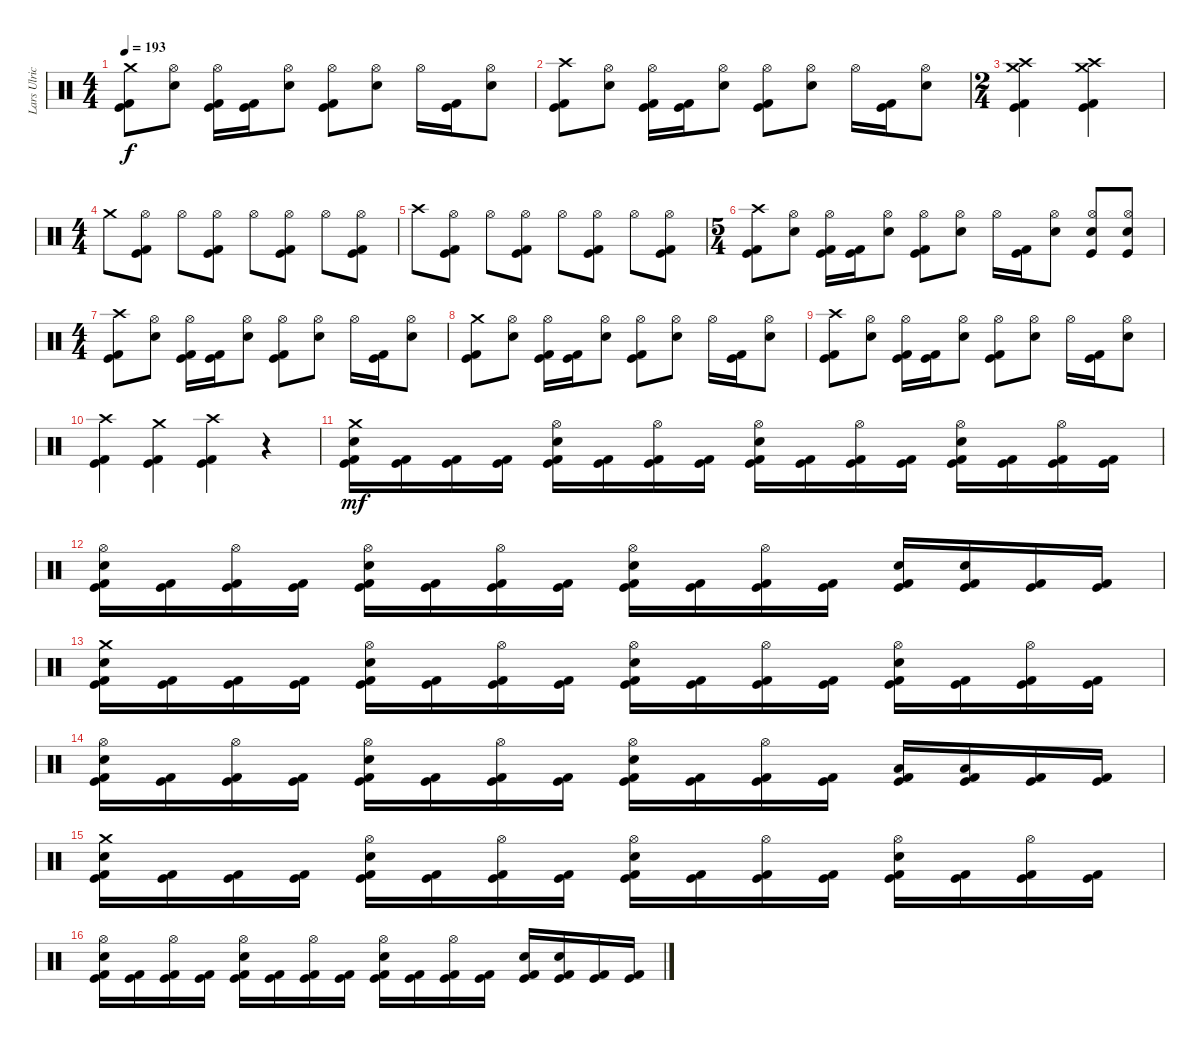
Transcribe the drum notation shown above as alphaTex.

\track ("Lars Ulrich" "Lars Ulric") {instrument percussion}
\staff {score}
\articulation defaults
\ts (4 4)
\tempo 193
\clef neutral
\ks c
("Crash medium (hit)" "Kick (hit) 2" "Kick (hit)").8{dy f} ("Hi-Hat (open)" "Electric Snare (hit)").8 ("Hi-Hat (open)" "Kick (hit) 2" "Kick (hit)").16 ("Kick (hit) 2" "Kick (hit)").16 ("Hi-Hat (open)" "Electric Snare (hit)").8 ("Hi-Hat (open)" "Kick (hit) 2" "Kick (hit)").8 ("Hi-Hat (open)" "Electric Snare (hit)").8 "Hi-Hat (open)".16 ("Kick (hit) 2" "Kick (hit)").16 ("Hi-Hat (open)" "Electric Snare (hit)").8 |
("Crash high (hit)" "Kick (hit) 2" "Kick (hit)").8 ("Hi-Hat (open)" "Electric Snare (hit)").8 ("Hi-Hat (open)" "Kick (hit) 2" "Kick (hit)").16 ("Kick (hit) 2" "Kick (hit)").16 ("Hi-Hat (open)" "Electric Snare (hit)").8 ("Hi-Hat (open)" "Kick (hit) 2" "Kick (hit)").8 ("Hi-Hat (open)" "Electric Snare (hit)").8 "Hi-Hat (open)".16 ("Kick (hit) 2" "Kick (hit)").16 ("Hi-Hat (open)" "Electric Snare (hit)").8 |
\ts (2 4)
("Crash high (hit)" "Crash medium (hit)" "Kick (hit) 2" "Kick (hit)").4 ("Crash high (hit)" "Crash medium (hit)" "Kick (hit) 2" "Kick (hit)").4 |
\ts (4 4)
"Crash medium (hit)".8 ("Hi-Hat (open)" "Kick (hit) 2" "Kick (hit)").8 "Hi-Hat (open)".8 ("Hi-Hat (open)" "Kick (hit) 2" "Kick (hit)").8 "Hi-Hat (open)".8 ("Hi-Hat (open)" "Kick (hit) 2" "Kick (hit)").8 "Hi-Hat (open)".8 ("Hi-Hat (open)" "Kick (hit) 2" "Kick (hit)").8 |
"Crash high (hit)".8 ("Hi-Hat (open)" "Kick (hit) 2" "Kick (hit)").8 "Hi-Hat (open)".8 ("Hi-Hat (open)" "Kick (hit) 2" "Kick (hit)").8 "Hi-Hat (open)".8 ("Hi-Hat (open)" "Kick (hit) 2" "Kick (hit)").8 "Hi-Hat (open)".8 ("Hi-Hat (open)" "Kick (hit) 2" "Kick (hit)").8 |
\ts (5 4)
("Crash high (hit)" "Kick (hit) 2" "Kick (hit)").8 ("Hi-Hat (open)" "Electric Snare (hit)").8 ("Hi-Hat (open)" "Kick (hit) 2" "Kick (hit)").16 ("Kick (hit) 2" "Kick (hit)").16 ("Hi-Hat (open)" "Electric Snare (hit)").8 ("Hi-Hat (open)" "Kick (hit) 2" "Kick (hit)").8 ("Hi-Hat (open)" "Electric Snare (hit)").8 "Hi-Hat (open)".16 ("Kick (hit) 2" "Kick (hit)").16 ("Hi-Hat (open)" "Electric Snare (hit)").8 ("Hi-Hat (open)" "Electric Snare (hit)" "Kick (hit)").8 ("Hi-Hat (open)" "Electric Snare (hit)" "Kick (hit)").8 |
\ts (4 4)
("Crash high (hit)" "Kick (hit) 2" "Kick (hit)").8 ("Hi-Hat (open)" "Electric Snare (hit)").8 ("Hi-Hat (open)" "Kick (hit) 2" "Kick (hit)").16 ("Kick (hit) 2" "Kick (hit)").16 ("Hi-Hat (open)" "Electric Snare (hit)").8 ("Hi-Hat (open)" "Kick (hit) 2" "Kick (hit)").8 ("Hi-Hat (open)" "Electric Snare (hit)").8 "Hi-Hat (open)".16 ("Kick (hit) 2" "Kick (hit)").16 ("Hi-Hat (open)" "Electric Snare (hit)").8 |
("Crash medium (hit)" "Kick (hit) 2" "Kick (hit)").8 ("Hi-Hat (open)" "Electric Snare (hit)").8 ("Hi-Hat (open)" "Kick (hit) 2" "Kick (hit)").16 ("Kick (hit) 2" "Kick (hit)").16 ("Hi-Hat (open)" "Electric Snare (hit)").8 ("Hi-Hat (open)" "Kick (hit) 2" "Kick (hit)").8 ("Hi-Hat (open)" "Electric Snare (hit)").8 "Hi-Hat (open)".16 ("Kick (hit) 2" "Kick (hit)").16 ("Hi-Hat (open)" "Electric Snare (hit)").8 |
("Crash high (hit)" "Kick (hit) 2" "Kick (hit)").8 ("Hi-Hat (open)" "Electric Snare (hit)").8 ("Hi-Hat (open)" "Kick (hit) 2" "Kick (hit)").16 ("Kick (hit) 2" "Kick (hit)").16 ("Hi-Hat (open)" "Electric Snare (hit)").8 ("Hi-Hat (open)" "Kick (hit) 2" "Kick (hit)").8 ("Hi-Hat (open)" "Electric Snare (hit)").8 "Hi-Hat (open)".16 ("Kick (hit) 2" "Kick (hit)").16 ("Hi-Hat (open)" "Electric Snare (hit)").8 |
("Crash high (hit)" "Kick (hit) 2" "Kick (hit)").4 ("Crash medium (hit)" "Kick (hit) 2" "Kick (hit)").4 ("Crash high (hit)" "Kick (hit) 2" "Kick (hit)").4 r.4 |
("Crash medium (hit)" "Electric Snare (hit)" "Kick (hit) 2" "Kick (hit)").16{dy mf} ("Kick (hit) 2" "Kick (hit)").16 ("Kick (hit) 2" "Kick (hit)").16 ("Kick (hit) 2" "Kick (hit)").16 ("Hi-Hat (open)" "Electric Snare (hit)" "Kick (hit) 2" "Kick (hit)").16 ("Kick (hit) 2" "Kick (hit)").16 ("Hi-Hat (open)" "Kick (hit) 2" "Kick (hit)").16 ("Kick (hit) 2" "Kick (hit)").16 ("Hi-Hat (open)" "Electric Snare (hit)" "Kick (hit) 2" "Kick (hit)").16 ("Kick (hit) 2" "Kick (hit)").16 ("Hi-Hat (open)" "Kick (hit) 2" "Kick (hit)").16 ("Kick (hit) 2" "Kick (hit)").16 ("Hi-Hat (open)" "Electric Snare (hit)" "Kick (hit) 2" "Kick (hit)").16 ("Kick (hit) 2" "Kick (hit)").16 ("Hi-Hat (open)" "Kick (hit) 2" "Kick (hit)").16 ("Kick (hit) 2" "Kick (hit)").16 |
("Hi-Hat (open)" "Electric Snare (hit)" "Kick (hit) 2" "Kick (hit)").16 ("Kick (hit) 2" "Kick (hit)").16 ("Hi-Hat (open)" "Kick (hit) 2" "Kick (hit)").16 ("Kick (hit) 2" "Kick (hit)").16 ("Hi-Hat (open)" "Electric Snare (hit)" "Kick (hit) 2" "Kick (hit)").16 ("Kick (hit) 2" "Kick (hit)").16 ("Hi-Hat (open)" "Kick (hit) 2" "Kick (hit)").16 ("Kick (hit) 2" "Kick (hit)").16 ("Hi-Hat (open)" "Electric Snare (hit)" "Kick (hit) 2" "Kick (hit)").16 ("Kick (hit) 2" "Kick (hit)").16 ("Hi-Hat (open)" "Kick (hit) 2" "Kick (hit)").16 ("Kick (hit) 2" "Kick (hit)").16 ("Electric Snare (hit)" "Kick (hit) 2" "Kick (hit)").16 ("Electric Snare (hit)" "Kick (hit) 2" "Kick (hit)").16 ("Kick (hit) 2" "Kick (hit)").16 ("Kick (hit) 2" "Kick (hit)").16 |
("Crash medium (hit)" "Electric Snare (hit)" "Kick (hit) 2" "Kick (hit)").16 ("Kick (hit) 2" "Kick (hit)").16 ("Kick (hit) 2" "Kick (hit)").16 ("Kick (hit) 2" "Kick (hit)").16 ("Hi-Hat (open)" "Electric Snare (hit)" "Kick (hit) 2" "Kick (hit)").16 ("Kick (hit) 2" "Kick (hit)").16 ("Hi-Hat (open)" "Kick (hit) 2" "Kick (hit)").16 ("Kick (hit) 2" "Kick (hit)").16 ("Hi-Hat (open)" "Electric Snare (hit)" "Kick (hit) 2" "Kick (hit)").16 ("Kick (hit) 2" "Kick (hit)").16 ("Hi-Hat (open)" "Kick (hit) 2" "Kick (hit)").16 ("Kick (hit) 2" "Kick (hit)").16 ("Hi-Hat (open)" "Electric Snare (hit)" "Kick (hit) 2" "Kick (hit)").16 ("Kick (hit) 2" "Kick (hit)").16 ("Hi-Hat (open)" "Kick (hit) 2" "Kick (hit)").16 ("Kick (hit) 2" "Kick (hit)").16 |
("Hi-Hat (open)" "Electric Snare (hit)" "Kick (hit) 2" "Kick (hit)").16 ("Kick (hit) 2" "Kick (hit)").16 ("Hi-Hat (open)" "Kick (hit) 2" "Kick (hit)").16 ("Kick (hit) 2" "Kick (hit)").16 ("Hi-Hat (open)" "Electric Snare (hit)" "Kick (hit) 2" "Kick (hit)").16 ("Kick (hit) 2" "Kick (hit)").16 ("Hi-Hat (open)" "Kick (hit) 2" "Kick (hit)").16 ("Kick (hit) 2" "Kick (hit)").16 ("Hi-Hat (open)" "Electric Snare (hit)" "Kick (hit) 2" "Kick (hit)").16 ("Kick (hit) 2" "Kick (hit)").16 ("Hi-Hat (open)" "Kick (hit) 2" "Kick (hit)").16 ("Kick (hit) 2" "Kick (hit)").16 ("Low Tom (hit)" "Kick (hit) 2" "Kick (hit)").16 ("Low Tom (hit)" "Kick (hit) 2" "Kick (hit)").16 ("Kick (hit) 2" "Kick (hit)").16 ("Kick (hit) 2" "Kick (hit)").16 |
("Crash medium (hit)" "Electric Snare (hit)" "Kick (hit) 2" "Kick (hit)").16 ("Kick (hit) 2" "Kick (hit)").16 ("Kick (hit) 2" "Kick (hit)").16 ("Kick (hit) 2" "Kick (hit)").16 ("Hi-Hat (open)" "Electric Snare (hit)" "Kick (hit) 2" "Kick (hit)").16 ("Kick (hit) 2" "Kick (hit)").16 ("Hi-Hat (open)" "Kick (hit) 2" "Kick (hit)").16 ("Kick (hit) 2" "Kick (hit)").16 ("Hi-Hat (open)" "Electric Snare (hit)" "Kick (hit) 2" "Kick (hit)").16 ("Kick (hit) 2" "Kick (hit)").16 ("Hi-Hat (open)" "Kick (hit) 2" "Kick (hit)").16 ("Kick (hit) 2" "Kick (hit)").16 ("Hi-Hat (open)" "Electric Snare (hit)" "Kick (hit) 2" "Kick (hit)").16 ("Kick (hit) 2" "Kick (hit)").16 ("Hi-Hat (open)" "Kick (hit) 2" "Kick (hit)").16 ("Kick (hit) 2" "Kick (hit)").16 |
("Hi-Hat (open)" "Electric Snare (hit)" "Kick (hit) 2" "Kick (hit)").16 ("Kick (hit) 2" "Kick (hit)").16 ("Hi-Hat (open)" "Kick (hit) 2" "Kick (hit)").16 ("Kick (hit) 2" "Kick (hit)").16 ("Hi-Hat (open)" "Electric Snare (hit)" "Kick (hit) 2" "Kick (hit)").16 ("Kick (hit) 2" "Kick (hit)").16 ("Hi-Hat (open)" "Kick (hit) 2" "Kick (hit)").16 ("Kick (hit) 2" "Kick (hit)").16 ("Hi-Hat (open)" "Electric Snare (hit)" "Kick (hit) 2" "Kick (hit)").16 ("Kick (hit) 2" "Kick (hit)").16 ("Hi-Hat (open)" "Kick (hit) 2" "Kick (hit)").16 ("Kick (hit) 2" "Kick (hit)").16 ("Electric Snare (hit)" "Kick (hit) 2" "Kick (hit)").16 ("Electric Snare (hit)" "Kick (hit) 2" "Kick (hit)").16 ("Kick (hit) 2" "Kick (hit)").16 ("Kick (hit) 2" "Kick (hit)").16
